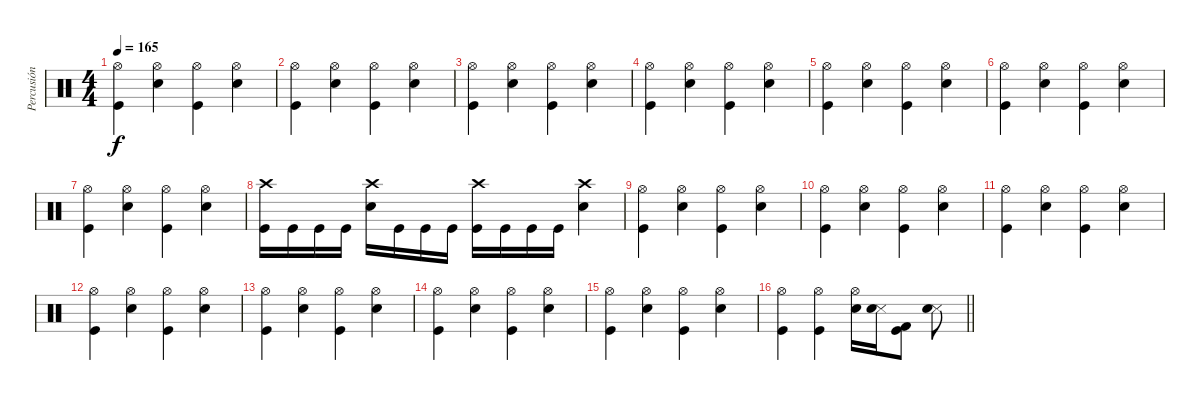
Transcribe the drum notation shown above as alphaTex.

\track ("Percusión" "Percusión") {instrument percussion}
\staff {score}
\articulation defaults
\ts (4 4)
\tempo 165
\clef neutral
\ks c
("Hi-Hat (open)" "Kick (hit)").4{dy f} ("Hi-Hat (open)" "Snare (hit) 2").4 ("Hi-Hat (open)" "Kick (hit)").4 ("Hi-Hat (open)" "Snare (hit) 2").4 |
("Hi-Hat (open)" "Kick (hit)").4 ("Hi-Hat (open)" "Snare (hit) 2").4 ("Hi-Hat (open)" "Kick (hit)").4 ("Hi-Hat (open)" "Snare (hit) 2").4 |
("Hi-Hat (open)" "Kick (hit)").4 ("Hi-Hat (open)" "Snare (hit) 2").4 ("Hi-Hat (open)" "Kick (hit)").4 ("Hi-Hat (open)" "Snare (hit) 2").4 |
("Hi-Hat (open)" "Kick (hit)").4 ("Hi-Hat (open)" "Snare (hit) 2").4 ("Hi-Hat (open)" "Kick (hit)").4 ("Hi-Hat (open)" "Snare (hit) 2").4 |
("Hi-Hat (open)" "Kick (hit)").4 ("Hi-Hat (open)" "Snare (hit) 2").4 ("Hi-Hat (open)" "Kick (hit)").4 ("Hi-Hat (open)" "Snare (hit) 2").4 |
("Hi-Hat (open)" "Kick (hit)").4 ("Hi-Hat (open)" "Snare (hit) 2").4 ("Hi-Hat (open)" "Kick (hit)").4 ("Hi-Hat (open)" "Snare (hit) 2").4 |
("Hi-Hat (open)" "Kick (hit)").4 ("Hi-Hat (open)" "Snare (hit) 2").4 ("Hi-Hat (open)" "Kick (hit)").4 ("Hi-Hat (open)" "Snare (hit) 2").4 |
("Kick (hit)" "Crash high (hit)").16 "Kick (hit)".16 "Kick (hit)".16 "Kick (hit)".16 ("Snare (hit) 2" "Crash high (hit)").16 "Kick (hit)".16 "Kick (hit)".16 "Kick (hit)".16 ("Kick (hit)" "Crash high (hit)").16 "Kick (hit)".16 "Kick (hit)".16 "Kick (hit)".16 ("Snare (hit) 2" "Crash high (hit)").4 |
("Hi-Hat (open)" "Kick (hit)").4 ("Hi-Hat (open)" "Snare (hit) 2").4 ("Hi-Hat (open)" "Kick (hit)").4 ("Hi-Hat (open)" "Snare (hit) 2").4 |
("Hi-Hat (open)" "Kick (hit)").4 ("Hi-Hat (open)" "Snare (hit) 2").4 ("Hi-Hat (open)" "Kick (hit)").4 ("Hi-Hat (open)" "Snare (hit) 2").4 |
("Hi-Hat (open)" "Kick (hit)").4 ("Hi-Hat (open)" "Snare (hit) 2").4 ("Hi-Hat (open)" "Kick (hit)").4 ("Hi-Hat (open)" "Snare (hit) 2").4 |
("Hi-Hat (open)" "Kick (hit)").4 ("Hi-Hat (open)" "Snare (hit) 2").4 ("Hi-Hat (open)" "Kick (hit)").4 ("Hi-Hat (open)" "Snare (hit) 2").4 |
("Hi-Hat (open)" "Kick (hit)").4 ("Hi-Hat (open)" "Snare (hit) 2").4 ("Hi-Hat (open)" "Kick (hit)").4 ("Hi-Hat (open)" "Snare (hit) 2").4 |
("Hi-Hat (open)" "Kick (hit)").4 ("Hi-Hat (open)" "Snare (hit) 2").4 ("Hi-Hat (open)" "Kick (hit)").4 ("Hi-Hat (open)" "Snare (hit) 2").4 |
("Hi-Hat (open)" "Kick (hit)").4 ("Hi-Hat (open)" "Snare (hit) 2").4 ("Hi-Hat (open)" "Kick (hit)").4 ("Hi-Hat (open)" "Snare (hit) 2").4 |
\barLineRight lightlight
("Hi-Hat (open)" "Kick (hit)").4 ("Hi-Hat (open)" "Kick (hit)").4 ("Hi-Hat (open)" "Snare (hit) 2").16 ("Snare (side stick) 3" "Snare (hit) 2").16 ("Kick (hit) 2" "Kick (hit)").8 ("Snare (side stick) 3" "Snare (hit) 2").8
